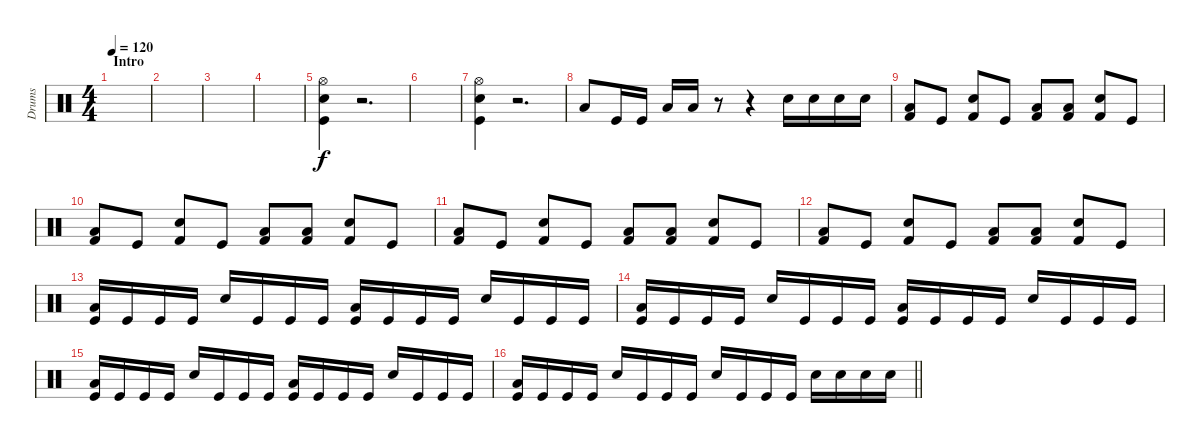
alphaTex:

\track ("Drums" "Drums") {instrument percussion}
\staff {score}
\articulation defaults
\ts (4 4)
\section ("" "Intro ")
\tempo 120
\clef neutral
\ks c
|
|
|
|
("Hi-Hat (open)" "Electric Snare (hit)" "Kick (hit)").4 r.2{d} |
|
("Hi-Hat (open)" "Electric Snare (hit)" "Kick (hit)").4 r.2{d} |
"Low Floor Tom (hit)".8 "Kick (hit)".16 "Kick (hit)".16 "Low Floor Tom (hit)".16 "Low Floor Tom (hit)".16 r.8 r.4 "Electric Snare (hit)".16 "Electric Snare (hit)".16 "Electric Snare (hit)".16 "Electric Snare (hit)".16 |
("Low Floor Tom (hit)" "Kick (hit) 2").8 "Kick (hit)".8 ("Electric Snare (hit)" "Kick (hit) 2").8 "Kick (hit)".8 ("Low Floor Tom (hit)" "Kick (hit) 2").8 ("Low Floor Tom (hit)" "Kick (hit) 2").8 ("Electric Snare (hit)" "Kick (hit) 2").8 "Kick (hit)".8 |
("Low Floor Tom (hit)" "Kick (hit) 2").8 "Kick (hit)".8 ("Electric Snare (hit)" "Kick (hit) 2").8 "Kick (hit)".8 ("Low Floor Tom (hit)" "Kick (hit) 2").8 ("Low Floor Tom (hit)" "Kick (hit) 2").8 ("Electric Snare (hit)" "Kick (hit) 2").8 "Kick (hit)".8 |
("Low Floor Tom (hit)" "Kick (hit) 2").8 "Kick (hit)".8 ("Electric Snare (hit)" "Kick (hit) 2").8 "Kick (hit)".8 ("Low Floor Tom (hit)" "Kick (hit) 2").8 ("Low Floor Tom (hit)" "Kick (hit) 2").8 ("Electric Snare (hit)" "Kick (hit) 2").8 "Kick (hit)".8 |
("Low Floor Tom (hit)" "Kick (hit) 2").8 "Kick (hit)".8 ("Electric Snare (hit)" "Kick (hit) 2").8 "Kick (hit)".8 ("Low Floor Tom (hit)" "Kick (hit) 2").8 ("Low Floor Tom (hit)" "Kick (hit) 2").8 ("Electric Snare (hit)" "Kick (hit) 2").8 "Kick (hit)".8 |
("Low Floor Tom (hit)" "Kick (hit)").16 "Kick (hit)".16 "Kick (hit)".16 "Kick (hit)".16 "Electric Snare (hit)".16 "Kick (hit)".16 "Kick (hit)".16 "Kick (hit)".16 ("Low Floor Tom (hit)" "Kick (hit)").16 "Kick (hit)".16 "Kick (hit)".16 "Kick (hit)".16 "Electric Snare (hit)".16 "Kick (hit)".16 "Kick (hit)".16 "Kick (hit)".16 |
("Low Floor Tom (hit)" "Kick (hit)").16 "Kick (hit)".16 "Kick (hit)".16 "Kick (hit)".16 "Electric Snare (hit)".16 "Kick (hit)".16 "Kick (hit)".16 "Kick (hit)".16 ("Low Floor Tom (hit)" "Kick (hit)").16 "Kick (hit)".16 "Kick (hit)".16 "Kick (hit)".16 "Electric Snare (hit)".16 "Kick (hit)".16 "Kick (hit)".16 "Kick (hit)".16 |
("Low Floor Tom (hit)" "Kick (hit)").16 "Kick (hit)".16 "Kick (hit)".16 "Kick (hit)".16 "Electric Snare (hit)".16 "Kick (hit)".16 "Kick (hit)".16 "Kick (hit)".16 ("Low Floor Tom (hit)" "Kick (hit)").16 "Kick (hit)".16 "Kick (hit)".16 "Kick (hit)".16 "Electric Snare (hit)".16 "Kick (hit)".16 "Kick (hit)".16 "Kick (hit)".16 |
\barLineRight lightlight
("Low Floor Tom (hit)" "Kick (hit)").16 "Kick (hit)".16 "Kick (hit)".16 "Kick (hit)".16 "Electric Snare (hit)".16 "Kick (hit)".16 "Kick (hit)".16 "Kick (hit)".16 "Electric Snare (hit)".16 "Kick (hit)".16 "Kick (hit)".16 "Kick (hit)".16 "Electric Snare (hit)".16 "Electric Snare (hit)".16 "Electric Snare (hit)".16 "Electric Snare (hit)".16
